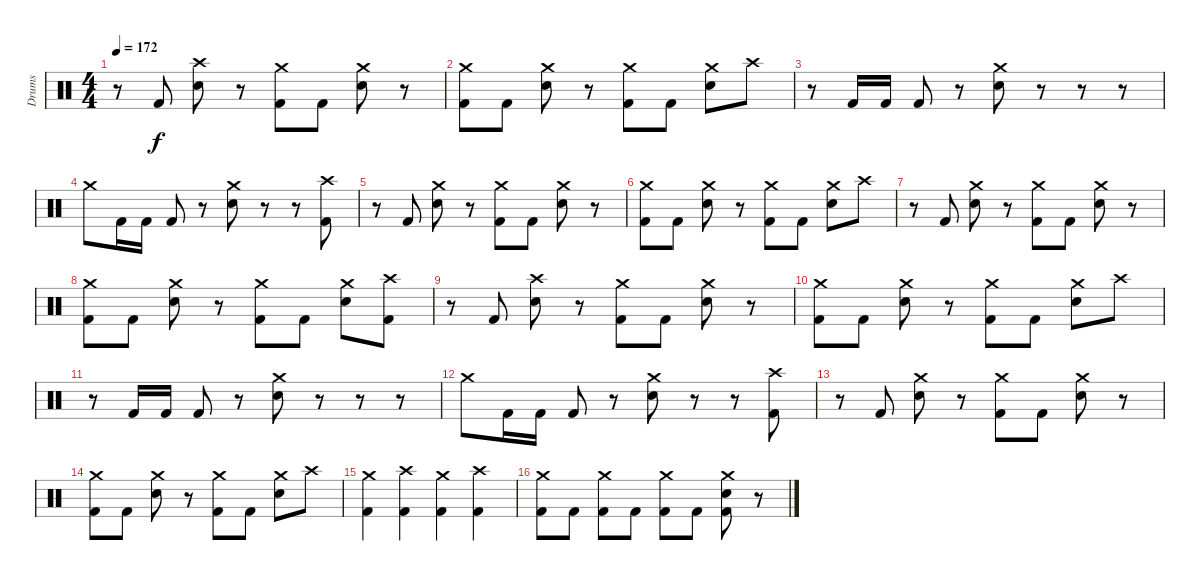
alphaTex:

\track ("Drums" "Drums") {instrument percussion}
\staff {score}
\articulation defaults
\ts (4 4)
\tempo 172
\clef neutral
\ks c
r.8{dy f} "Kick (hit) 2".8 ("Crash high (hit)" "Electric Snare (hit)").8 r.8 ("Crash medium (hit)" "Kick (hit) 2").8 "Kick (hit) 2".8 ("Crash medium (hit)" "Electric Snare (hit)").8 r.8 |
("Crash medium (hit)" "Kick (hit) 2").8 "Kick (hit) 2".8 ("Crash medium (hit)" "Electric Snare (hit)").8 r.8 ("Crash medium (hit)" "Kick (hit) 2").8 "Kick (hit) 2".8 ("Crash medium (hit)" "Electric Snare (hit)").8 "Crash high (hit)".8 |
r.8 "Kick (hit) 2".16 "Kick (hit) 2".16 "Kick (hit) 2".8 r.8 ("Crash medium (hit)" "Electric Snare (hit)").8 r.8 r.8 r.8 |
"Crash medium (hit)".8 "Kick (hit) 2".16 "Kick (hit) 2".16 "Kick (hit) 2".8 r.8 ("Crash medium (hit)" "Electric Snare (hit)").8 r.8 r.8 ("Crash high (hit)" "Kick (hit) 2").8 |
r.8 "Kick (hit) 2".8 ("Crash medium (hit)" "Electric Snare (hit)").8 r.8 ("Crash medium (hit)" "Kick (hit) 2").8 "Kick (hit) 2".8 ("Crash medium (hit)" "Electric Snare (hit)").8 r.8 |
("Crash medium (hit)" "Kick (hit) 2").8 "Kick (hit) 2".8 ("Crash medium (hit)" "Electric Snare (hit)").8 r.8 ("Crash medium (hit)" "Kick (hit) 2").8 "Kick (hit) 2".8 ("Crash medium (hit)" "Electric Snare (hit)").8 "Crash high (hit)".8 |
r.8 "Kick (hit) 2".8 ("Crash medium (hit)" "Electric Snare (hit)").8 r.8 ("Crash medium (hit)" "Kick (hit) 2").8 "Kick (hit) 2".8 ("Crash medium (hit)" "Electric Snare (hit)").8 r.8 |
("Crash medium (hit)" "Kick (hit) 2").8 "Kick (hit) 2".8 ("Crash medium (hit)" "Electric Snare (hit)").8 r.8 ("Crash medium (hit)" "Kick (hit) 2").8 "Kick (hit) 2".8 ("Crash medium (hit)" "Electric Snare (hit)").8 ("Crash high (hit)" "Kick (hit) 2").8 |
r.8 "Kick (hit) 2".8 ("Crash high (hit)" "Electric Snare (hit)").8 r.8 ("Crash medium (hit)" "Kick (hit) 2").8 "Kick (hit) 2".8 ("Crash medium (hit)" "Electric Snare (hit)").8 r.8 |
("Crash medium (hit)" "Kick (hit) 2").8 "Kick (hit) 2".8 ("Crash medium (hit)" "Electric Snare (hit)").8 r.8 ("Crash medium (hit)" "Kick (hit) 2").8 "Kick (hit) 2".8 ("Crash medium (hit)" "Electric Snare (hit)").8 "Crash high (hit)".8 |
r.8 "Kick (hit) 2".16 "Kick (hit) 2".16 "Kick (hit) 2".8 r.8 ("Crash medium (hit)" "Electric Snare (hit)").8 r.8 r.8 r.8 |
"Crash medium (hit)".8 "Kick (hit) 2".16 "Kick (hit) 2".16 "Kick (hit) 2".8 r.8 ("Crash medium (hit)" "Electric Snare (hit)").8 r.8 r.8 ("Crash high (hit)" "Kick (hit) 2").8 |
r.8 "Kick (hit) 2".8 ("Crash medium (hit)" "Electric Snare (hit)").8 r.8 ("Crash medium (hit)" "Kick (hit) 2").8 "Kick (hit) 2".8 ("Crash medium (hit)" "Electric Snare (hit)").8 r.8 |
("Crash medium (hit)" "Kick (hit) 2").8 "Kick (hit) 2".8 ("Crash medium (hit)" "Electric Snare (hit)").8 r.8 ("Crash medium (hit)" "Kick (hit) 2").8 "Kick (hit) 2".8 ("Crash medium (hit)" "Electric Snare (hit)").8 "Crash high (hit)".8 |
("Crash medium (hit)" "Kick (hit) 2").4 ("Crash high (hit)" "Kick (hit) 2").4 ("Crash medium (hit)" "Kick (hit) 2").4 ("Crash high (hit)" "Kick (hit) 2").4 |
("Crash medium (hit)" "Kick (hit) 2").8 "Kick (hit) 2".8 ("Crash medium (hit)" "Kick (hit) 2").8 "Kick (hit) 2".8 ("Crash medium (hit)" "Kick (hit) 2").8 "Kick (hit) 2".8 ("Crash medium (hit)" "Electric Snare (hit)" "Kick (hit) 2").8 r.8
